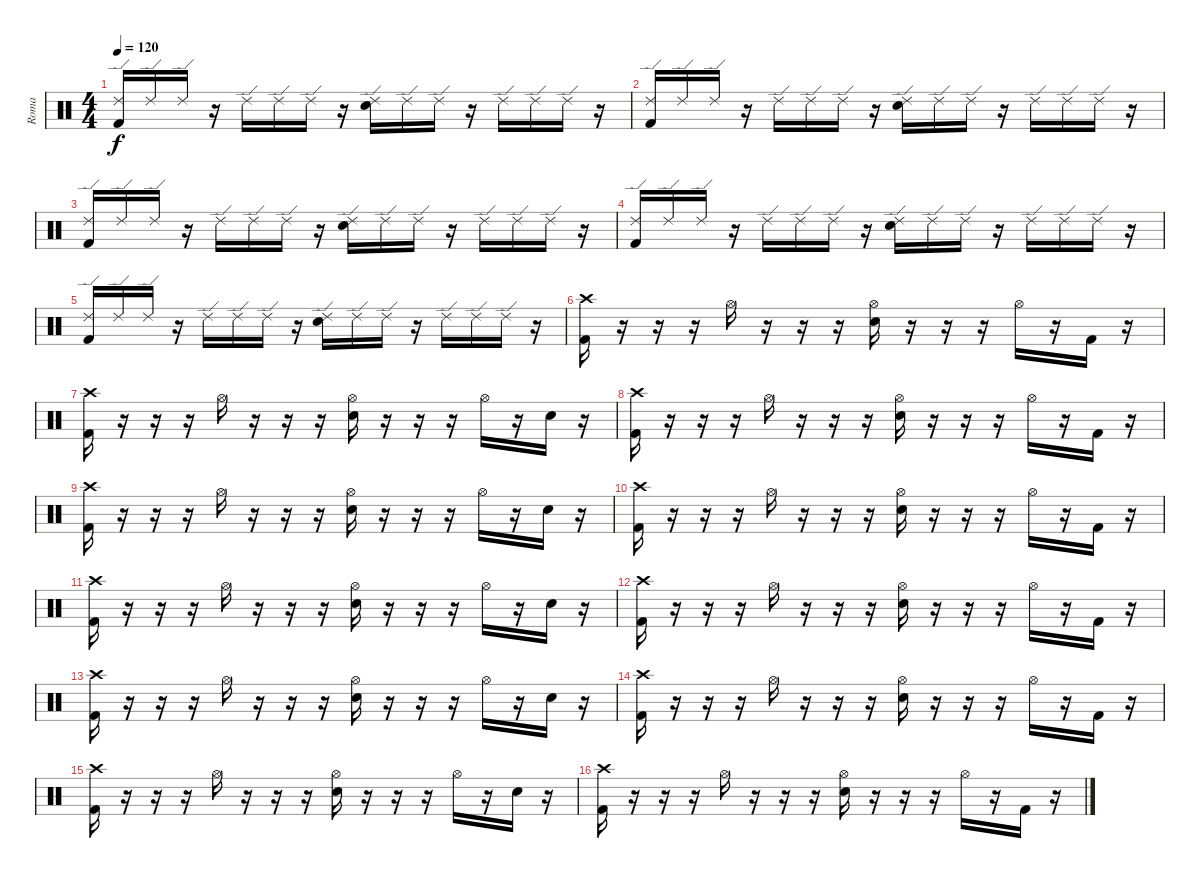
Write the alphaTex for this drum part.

\track ("Roma" "Roma") {instrument percussion}
\staff {score}
\articulation defaults
\ts (4 4)
\tempo 120
\clef neutral
\ks c
("Ride (edge) 2" "Kick (hit) 2").16{dy f} "Ride (edge) 2".16 "Ride (edge) 2".16 r.16 "Ride (edge) 2".16 "Ride (edge) 2".16 "Ride (edge) 2".16 r.16 ("Ride (edge) 2" "Electric Snare (hit)").16 "Ride (edge) 2".16 "Ride (edge) 2".16 r.16 "Ride (edge) 2".16 "Ride (edge) 2".16 "Ride (edge) 2".16 r.16 |
("Ride (edge) 2" "Kick (hit) 2").16 "Ride (edge) 2".16 "Ride (edge) 2".16 r.16 "Ride (edge) 2".16 "Ride (edge) 2".16 "Ride (edge) 2".16 r.16 ("Ride (edge) 2" "Electric Snare (hit)").16 "Ride (edge) 2".16 "Ride (edge) 2".16 r.16 "Ride (edge) 2".16 "Ride (edge) 2".16 "Ride (edge) 2".16 r.16 |
("Ride (edge) 2" "Kick (hit) 2").16 "Ride (edge) 2".16 "Ride (edge) 2".16 r.16 "Ride (edge) 2".16 "Ride (edge) 2".16 "Ride (edge) 2".16 r.16 ("Ride (edge) 2" "Electric Snare (hit)").16 "Ride (edge) 2".16 "Ride (edge) 2".16 r.16 "Ride (edge) 2".16 "Ride (edge) 2".16 "Ride (edge) 2".16 r.16 |
("Ride (edge) 2" "Kick (hit) 2").16 "Ride (edge) 2".16 "Ride (edge) 2".16 r.16 "Ride (edge) 2".16 "Ride (edge) 2".16 "Ride (edge) 2".16 r.16 ("Ride (edge) 2" "Electric Snare (hit)").16 "Ride (edge) 2".16 "Ride (edge) 2".16 r.16 "Ride (edge) 2".16 "Ride (edge) 2".16 "Ride (edge) 2".16 r.16 |
("Ride (edge) 2" "Kick (hit) 2").16 "Ride (edge) 2".16 "Ride (edge) 2".16 r.16 "Ride (edge) 2".16 "Ride (edge) 2".16 "Ride (edge) 2".16 r.16 ("Ride (edge) 2" "Electric Snare (hit)").16 "Ride (edge) 2".16 "Ride (edge) 2".16 r.16 "Ride (edge) 2".16 "Ride (edge) 2".16 "Ride (edge) 2".16 r.16 |
("Crash high (hit)" "Kick (hit) 2").16 r.16 r.16 r.16 "Hi-Hat (open)".16 r.16 r.16 r.16 ("Hi-Hat (open)" "Electric Snare (hit)").16 r.16 r.16 r.16 "Hi-Hat (open)".16 r.16 "Kick (hit) 2".16 r.16 |
("Crash high (hit)" "Kick (hit) 2").16 r.16 r.16 r.16 "Hi-Hat (open)".16 r.16 r.16 r.16 ("Hi-Hat (open)" "Electric Snare (hit)").16 r.16 r.16 r.16 "Hi-Hat (open)".16 r.16 "Electric Snare (hit)".16 r.16 |
("Crash high (hit)" "Kick (hit) 2").16 r.16 r.16 r.16 "Hi-Hat (open)".16 r.16 r.16 r.16 ("Hi-Hat (open)" "Electric Snare (hit)").16 r.16 r.16 r.16 "Hi-Hat (open)".16 r.16 "Kick (hit) 2".16 r.16 |
("Crash high (hit)" "Kick (hit) 2").16 r.16 r.16 r.16 "Hi-Hat (open)".16 r.16 r.16 r.16 ("Hi-Hat (open)" "Electric Snare (hit)").16 r.16 r.16 r.16 "Hi-Hat (open)".16 r.16 "Electric Snare (hit)".16 r.16 |
("Crash high (hit)" "Kick (hit) 2").16 r.16 r.16 r.16 "Hi-Hat (open)".16 r.16 r.16 r.16 ("Hi-Hat (open)" "Electric Snare (hit)").16 r.16 r.16 r.16 "Hi-Hat (open)".16 r.16 "Kick (hit) 2".16 r.16 |
("Crash high (hit)" "Kick (hit) 2").16 r.16 r.16 r.16 "Hi-Hat (open)".16 r.16 r.16 r.16 ("Hi-Hat (open)" "Electric Snare (hit)").16 r.16 r.16 r.16 "Hi-Hat (open)".16 r.16 "Electric Snare (hit)".16 r.16 |
("Crash high (hit)" "Kick (hit) 2").16 r.16 r.16 r.16 "Hi-Hat (open)".16 r.16 r.16 r.16 ("Hi-Hat (open)" "Electric Snare (hit)").16 r.16 r.16 r.16 "Hi-Hat (open)".16 r.16 "Kick (hit) 2".16 r.16 |
("Crash high (hit)" "Kick (hit) 2").16 r.16 r.16 r.16 "Hi-Hat (open)".16 r.16 r.16 r.16 ("Hi-Hat (open)" "Electric Snare (hit)").16 r.16 r.16 r.16 "Hi-Hat (open)".16 r.16 "Electric Snare (hit)".16 r.16 |
("Crash high (hit)" "Kick (hit) 2").16 r.16 r.16 r.16 "Hi-Hat (open)".16 r.16 r.16 r.16 ("Hi-Hat (open)" "Electric Snare (hit)").16 r.16 r.16 r.16 "Hi-Hat (open)".16 r.16 "Kick (hit) 2".16 r.16 |
("Crash high (hit)" "Kick (hit) 2").16 r.16 r.16 r.16 "Hi-Hat (open)".16 r.16 r.16 r.16 ("Hi-Hat (open)" "Electric Snare (hit)").16 r.16 r.16 r.16 "Hi-Hat (open)".16 r.16 "Electric Snare (hit)".16 r.16 |
("Crash high (hit)" "Kick (hit) 2").16 r.16 r.16 r.16 "Hi-Hat (open)".16 r.16 r.16 r.16 ("Hi-Hat (open)" "Electric Snare (hit)").16 r.16 r.16 r.16 "Hi-Hat (open)".16 r.16 "Kick (hit) 2".16 r.16
